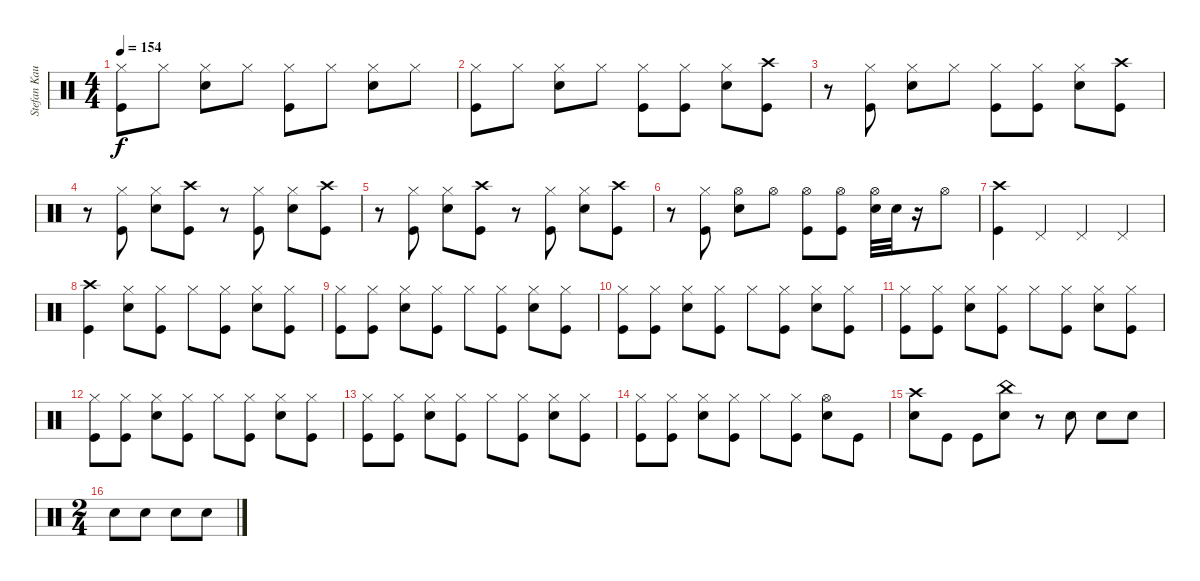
\track ("Stefan Kaufmann" "Stefan Kau") {instrument percussion}
\staff {score}
\articulation defaults
\ts (4 4)
\tempo 154
\clef neutral
\ks c
("Hi-Hat (closed)" "Kick (hit)").8{dy f} "Hi-Hat (closed)".8 ("Hi-Hat (closed)" "Snare (hit) 2").8 "Hi-Hat (closed)".8 ("Hi-Hat (closed)" "Kick (hit)").8 "Hi-Hat (closed)".8 ("Hi-Hat (closed)" "Snare (hit) 2").8 "Hi-Hat (closed)".8 |
("Hi-Hat (closed)" "Kick (hit)").8 "Hi-Hat (closed)".8 ("Hi-Hat (closed)" "Snare (hit) 2").8 "Hi-Hat (closed)".8 ("Hi-Hat (closed)" "Kick (hit)").8 ("Hi-Hat (closed)" "Kick (hit)").8 ("Hi-Hat (closed)" "Snare (hit) 2").8 ("Crash high (hit)" "Kick (hit)").8 |
r.8 ("Hi-Hat (closed)" "Kick (hit)").8 ("Hi-Hat (closed)" "Snare (hit) 2").8 "Hi-Hat (closed)".8 ("Hi-Hat (closed)" "Kick (hit)").8 ("Hi-Hat (closed)" "Kick (hit)").8 ("Hi-Hat (closed)" "Snare (hit) 2").8 ("Crash high (hit)" "Kick (hit)").8 |
r.8 ("Hi-Hat (closed)" "Kick (hit)").8 ("Hi-Hat (closed)" "Snare (hit) 2").8 ("Crash high (hit)" "Kick (hit)").8 r.8 ("Hi-Hat (closed)" "Kick (hit)").8 ("Hi-Hat (closed)" "Snare (hit) 2").8 ("Crash high (hit)" "Kick (hit)").8 |
r.8 ("Hi-Hat (closed)" "Kick (hit)").8 ("Hi-Hat (closed)" "Snare (hit) 2").8 ("Crash high (hit)" "Kick (hit)").8 r.8 ("Hi-Hat (closed)" "Kick (hit)").8 ("Hi-Hat (closed)" "Snare (hit) 2").8 ("Crash high (hit)" "Kick (hit)").8 |
r.8 ("Hi-Hat (closed)" "Kick (hit)").8 ("Hi-Hat (open)" "Snare (hit) 2").8 "Hi-Hat (open)".8 ("Hi-Hat (open)" "Kick (hit)").8 ("Hi-Hat (open)" "Kick (hit)").8 ("Hi-Hat (open)" "Snare (hit) 2").32 "Snare (hit) 2".32 r.16 "Hi-Hat (open)".8 |
("Crash high (hit)" "Kick (hit)").4 "Pedal Hi-Hat (hit)".4 "Pedal Hi-Hat (hit)".4 "Pedal Hi-Hat (hit)".4 |
("Crash high (hit)" "Kick (hit)").4 ("Hi-Hat (closed)" "Snare (hit) 2").8 ("Hi-Hat (closed)" "Kick (hit)").8 "Hi-Hat (closed)".8 ("Hi-Hat (closed)" "Kick (hit)").8 ("Hi-Hat (closed)" "Snare (hit) 2").8 ("Hi-Hat (closed)" "Kick (hit)").8 |
("Hi-Hat (closed)" "Kick (hit)").8 ("Hi-Hat (closed)" "Kick (hit)").8 ("Hi-Hat (closed)" "Snare (hit) 2").8 ("Hi-Hat (closed)" "Kick (hit)").8 "Hi-Hat (closed)".8 ("Hi-Hat (closed)" "Kick (hit)").8 ("Hi-Hat (closed)" "Snare (hit) 2").8 ("Hi-Hat (closed)" "Kick (hit)").8 |
("Hi-Hat (closed)" "Kick (hit)").8 ("Hi-Hat (closed)" "Kick (hit)").8 ("Hi-Hat (closed)" "Snare (hit) 2").8 ("Hi-Hat (closed)" "Kick (hit)").8 "Hi-Hat (closed)".8 ("Hi-Hat (closed)" "Kick (hit)").8 ("Hi-Hat (closed)" "Snare (hit) 2").8 ("Hi-Hat (closed)" "Kick (hit)").8 |
("Hi-Hat (closed)" "Kick (hit)").8 ("Hi-Hat (closed)" "Kick (hit)").8 ("Hi-Hat (closed)" "Snare (hit) 2").8 ("Hi-Hat (closed)" "Kick (hit)").8 "Hi-Hat (closed)".8 ("Hi-Hat (closed)" "Kick (hit)").8 ("Hi-Hat (closed)" "Snare (hit) 2").8 ("Hi-Hat (closed)" "Kick (hit)").8 |
("Hi-Hat (closed)" "Kick (hit)").8 ("Hi-Hat (closed)" "Kick (hit)").8 ("Hi-Hat (closed)" "Snare (hit) 2").8 ("Hi-Hat (closed)" "Kick (hit)").8 "Hi-Hat (closed)".8 ("Hi-Hat (closed)" "Kick (hit)").8 ("Hi-Hat (closed)" "Snare (hit) 2").8 ("Hi-Hat (closed)" "Kick (hit)").8 |
("Hi-Hat (closed)" "Kick (hit)").8 ("Hi-Hat (closed)" "Kick (hit)").8 ("Hi-Hat (closed)" "Snare (hit) 2").8 ("Hi-Hat (closed)" "Kick (hit)").8 "Hi-Hat (closed)".8 ("Hi-Hat (closed)" "Kick (hit)").8 ("Hi-Hat (closed)" "Snare (hit) 2").8 ("Hi-Hat (closed)" "Kick (hit)").8 |
("Hi-Hat (closed)" "Kick (hit)").8 ("Hi-Hat (closed)" "Kick (hit)").8 ("Hi-Hat (closed)" "Snare (hit) 2").8 ("Hi-Hat (closed)" "Kick (hit)").8 "Hi-Hat (closed)".8 ("Hi-Hat (closed)" "Kick (hit)").8 ("Hi-Hat (open)" "Snare (hit) 2").8 "Kick (hit)".8 |
("Crash high (hit)" "Snare (hit) 2").8 "Kick (hit)".8 "Kick (hit)".8 ("China (hit)" "Snare (hit) 2").8 r.8 "Snare (hit) 2".8 "Snare (hit) 2".8 "Snare (hit) 2".8 |
\ts (2 4)
"Snare (hit) 2".8 "Snare (hit) 2".8 "Snare (hit) 2".8 "Snare (hit) 2".8
